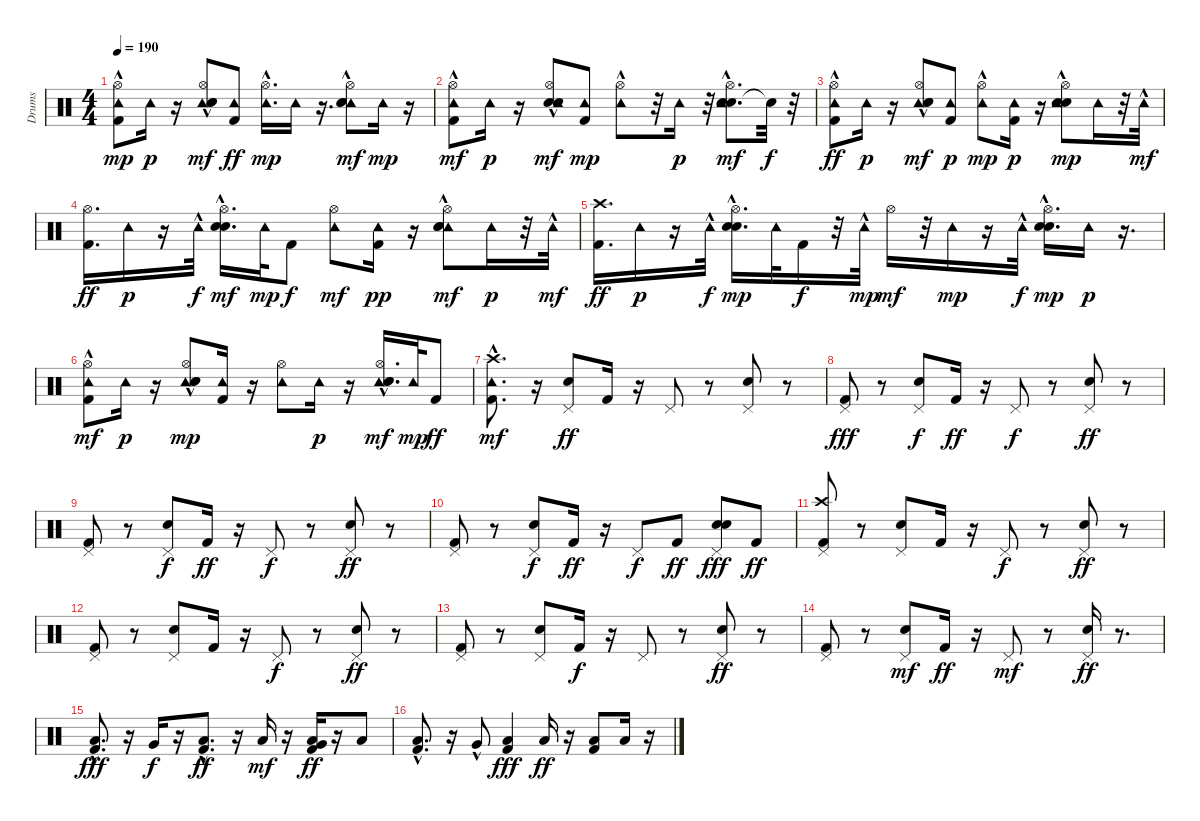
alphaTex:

\track ("Drums" "Drums") {instrument percussion}
\staff {score}
\articulation defaults
\ts (4 4)
\tempo 190
\clef neutral
\ks c
("Tambourine (hit)"{hac} "Kick (hit) 2" "Hi-Hat (open)").8{dy mp} "Tambourine (hit)".16{dy p} r.16 ("Tambourine (hit)"{hac} "Hand Clap (hit)"{hac} "Snare (hit) 2" "Hi-Hat (open)").8{dy mf} ("Tambourine (hit)" "Kick (hit) 2").8{dy ff} ("Tambourine (hit)"{hac} "Hi-Hat (open)").16{d dy mp} "Tambourine (hit)".16 r.16{d} ("Tambourine (hit)"{hac} "Hand Clap (hit)"{hac} "Snare (hit) 2" "Hi-Hat (open)").8{dy mf} "Tambourine (hit)".16{dy mp} r.16 |
("Tambourine (hit)"{hac} "Kick (hit) 2" "Hi-Hat (open)").8{dy mf} "Tambourine (hit)".16{dy p} r.16 ("Hand Clap (hit)"{hac} "Tambourine (hit)"{hac} "Snare (hit) 2" "Hi-Hat (open)").8{dy mf} ("Kick (hit) 2" "Tambourine (hit)").8{dy mp} ("Hi-Hat (open)" "Tambourine (hit)"{hac}).8 r.32 "Tambourine (hit)".16{dy p} r.32 ("Snare (hit) 2" "Hi-Hat (open)" "Hand Clap (hit)"{hac} "Tambourine (hit)"{hac}).8{d dy mf} "Snare (hit)"{t}.32{dy f} r.32 |
("Hi-Hat (open)" "Tambourine (hit)"{hac} "Kick (hit) 2").8{dy ff} "Tambourine (hit)".16{dy p} r.16 ("Tambourine (hit)"{hac} "Hand Clap (hit)"{hac} "Snare (hit) 2" "Hi-Hat (open)"{hac}).8{dy mf} ("Kick (hit) 2" "Tambourine (hit)").8{dy p} ("Tambourine (hit)"{hac} "Hi-Hat (open)").8{dy mp} ("Kick (hit) 2" "Tambourine (hit)").16{dy p} r.16 ("Hand Clap (hit)"{hac} "Snare (hit) 2" "Hi-Hat (open)" "Tambourine (hit)"{hac}).8{dy mp} "Tambourine (hit)".16 r.32 "Tambourine (hit)"{hac}.32{dy mf} |
("Hi-Hat (open)" "Kick (hit) 2").16{d dy ff} "Tambourine (hit)".16{dy p} r.16 "Tambourine (hit)"{hac}.32{dy f} ("Hand Clap (hit)"{hac} "Snare (hit) 2" "Hi-Hat (open)").16{d dy mf} "Tambourine (hit)".32{dy mp} "Kick (hit) 2".8{dy f} ("Tambourine (hit)" "Hi-Hat (open)").8{dy mf} ("Kick (hit) 2" "Tambourine (hit)").16{dy pp} r.16 ("Tambourine (hit)"{hac} "Snare (hit) 2" "Hand Clap (hit)"{hac} "Hi-Hat (open)").8{dy mf} "Tambourine (hit)".16{dy p} r.32 "Tambourine (hit)"{hac}.32{dy mf} |
("Kick (hit) 2" "Crash high (hit)").16{d dy ff} "Tambourine (hit)".16{dy p} r.16 "Tambourine (hit)"{hac}.32{dy f} ("Hand Clap (hit)"{hac} "Snare (hit) 2" "Hi-Hat (open)").16{d dy mp} "Tambourine (hit)".32 "Kick (hit) 2".16{dy f} r.32 "Tambourine (hit)"{hac}.32{dy mp} "Hi-Hat (open)".16{dy mf} r.32 "Tambourine (hit)".16{dy mp} r.16 "Tambourine (hit)"{hac}.32{dy f} ("Snare (hit) 2" "Hand Clap (hit)"{hac} "Hi-Hat (open)").16{d dy mp} "Tambourine (hit)".16{dy p} r.16{d} |
("Tambourine (hit)"{hac} "Kick (hit) 2" "Hi-Hat (open)").8{dy mf} "Tambourine (hit)".16{dy p} r.16 ("Tambourine (hit)"{hac} "Hand Clap (hit)"{hac} "Snare (hit) 2" "Hi-Hat (open)").8{dy mp} ("Kick (hit) 2" "Tambourine (hit)").16 r.16 ("Hi-Hat (open)" "Tambourine (hit)").8 "Tambourine (hit)".16{dy p} r.16 ("Tambourine (hit)"{hac} "Hand Clap (hit)"{hac} "Snare (hit) 2" "Hi-Hat (open)").16{d dy mf} "Tambourine (hit)".32{dy mp} "Kick (hit) 2".8{dy ff} |
("Tambourine (hit)" "Kick (hit) 2"{hac} "Crash high (hit)").8{d dy mf} r.16 ("Snare (hit) 2" "Pedal Hi-Hat (hit)").8{dy ff} "Kick (hit) 2".16 r.16 "Pedal Hi-Hat (hit)".8 r.8 ("Snare (hit) 2" "Pedal Hi-Hat (hit)").8 r.8 |
("Kick (hit) 2" "Pedal Hi-Hat (hit)").8{dy fff} r.8 ("Snare (hit) 2" "Pedal Hi-Hat (hit)").8{dy f} "Kick (hit) 2".16{dy ff} r.16 "Pedal Hi-Hat (hit)".8{dy f} r.8 ("Snare (hit) 2" "Pedal Hi-Hat (hit)").8{dy ff} r.8 |
("Kick (hit) 2" "Pedal Hi-Hat (hit)").8 r.8 ("Snare (hit) 2" "Pedal Hi-Hat (hit)").8{dy f} "Kick (hit) 2".16{dy ff} r.16 "Pedal Hi-Hat (hit)".8{dy f} r.8 ("Snare (hit) 2" "Pedal Hi-Hat (hit)").8{dy ff} r.8 |
("Kick (hit) 2" "Pedal Hi-Hat (hit)").8 r.8 ("Snare (hit) 2" "Pedal Hi-Hat (hit)").8{dy f} "Kick (hit) 2".16{dy ff} r.16 "Pedal Hi-Hat (hit)".8{dy f} "Kick (hit) 2".8{dy ff} ("Electric Snare (hit)" "Snare (hit) 2" "Pedal Hi-Hat (hit)").8{dy fff} "Kick (hit) 2".8{dy ff} |
("Pedal Hi-Hat (hit)" "Crash high (hit)" "Kick (hit) 2").8 r.8 ("Pedal Hi-Hat (hit)" "Snare (hit) 2").8 "Kick (hit) 2".16 r.16 "Pedal Hi-Hat (hit)".8{dy f} r.8 ("Snare (hit) 2" "Pedal Hi-Hat (hit)").8{dy ff} r.8 |
("Kick (hit) 2" "Pedal Hi-Hat (hit)").8 r.8 ("Snare (hit) 2" "Pedal Hi-Hat (hit)").8 "Kick (hit) 2".16 r.16 "Pedal Hi-Hat (hit)".8{dy f} r.8 ("Pedal Hi-Hat (hit)" "Snare (hit) 2").8{dy ff} r.8 |
("Pedal Hi-Hat (hit)" "Kick (hit) 2").8 r.8 ("Snare (hit) 2" "Pedal Hi-Hat (hit)").8 "Kick (hit) 2".16{dy f} r.16 "Pedal Hi-Hat (hit)".8 r.8 ("Snare (hit) 2" "Pedal Hi-Hat (hit)").8{dy ff} r.8 |
("Kick (hit) 2" "Pedal Hi-Hat (hit)").8 r.8 ("Snare (hit) 2" "Pedal Hi-Hat (hit)").8{dy mf} "Kick (hit) 2".16{dy ff} r.16 "Pedal Hi-Hat (hit)".8{dy mf} r.8 ("Pedal Hi-Hat (hit)" "Snare (hit) 2").16{dy ff} r.8{d} |
("Low Tom (hit)"{hac} "Kick (hit) 2"{hac}).8{d dy fff} r.16 "Very Low Tom (hit)".16{dy f} r.16 ("Kick (hit) 2"{hac} "Low Tom (hit)"{hac}).8{d dy ff} r.16 "Low Tom (hit)".16{dy mf} r.16 ("Very Low Tom (hit)" "Low Floor Tom (hit)" "Kick (hit) 2").16{dy ff} r.16 "Low Tom (hit)".8 |
("Low Tom (hit)"{hac} "Kick (hit) 2"{hac}).8{d} r.16 "Very Low Tom (hit)"{hac}.8 ("Low Tom (hit)" "Kick (hit) 2").4{dy fff} "Low Tom (hit)".16{dy ff} r.16 ("Low Tom (hit)" "Kick (hit) 2").8 "Low Floor Tom (hit)".16 r.16
